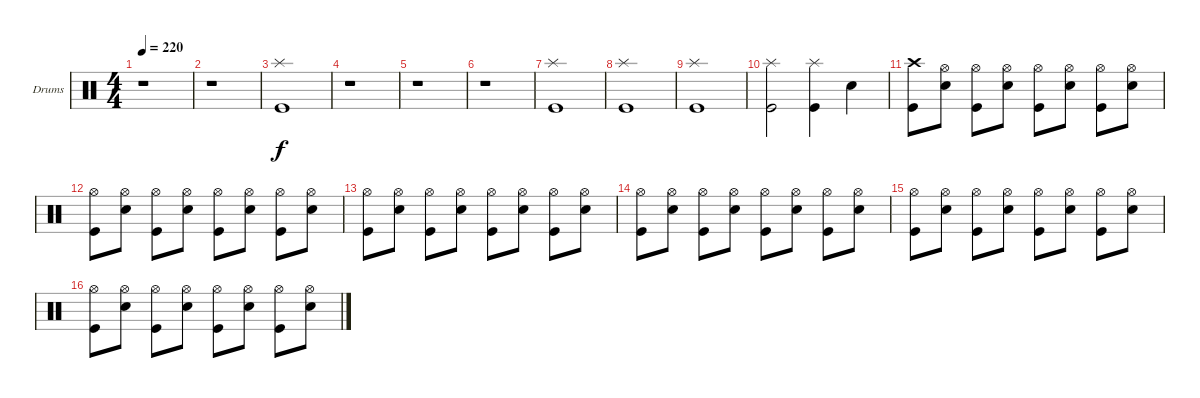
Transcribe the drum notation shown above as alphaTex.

\bracketExtendMode groupsimilarinstruments
\firstSystemTrackNameOrientation horizontal
\otherSystemsTrackNameOrientation horizontal
\track ("Dave Lombardo" "Drums") {instrument percussion}
\staff {score}
\articulation defaults
\ts (4 4)
\tempo 220
\clef neutral
\ks c
r.1{dy f} |
r.1 |
("Kick (hit)" "Splash (hit)").1 |
r.1 |
r.1 |
r.1 |
("Kick (hit)" "Splash (hit)").1 |
("Kick (hit)" "Splash (hit)").1 |
("Kick (hit)" "Splash (hit)").1 |
("Kick (hit)" "Splash (hit)").2 ("Kick (hit)" "Splash (hit)").4 "Snare (hit) 2".4 |
("Kick (hit)" "Crash high (hit)").8 ("Snare (hit) 2" "Hi-Hat (open)").8 ("Kick (hit)" "Hi-Hat (open)").8 ("Snare (hit) 2" "Hi-Hat (open)").8 ("Kick (hit)" "Hi-Hat (open)").8 ("Snare (hit) 2" "Hi-Hat (open)").8 ("Kick (hit)" "Hi-Hat (open)").8 ("Snare (hit) 2" "Hi-Hat (open)").8 |
("Kick (hit)" "Hi-Hat (open)").8 ("Snare (hit) 2" "Hi-Hat (open)").8 ("Kick (hit)" "Hi-Hat (open)").8 ("Snare (hit) 2" "Hi-Hat (open)").8 ("Kick (hit)" "Hi-Hat (open)").8 ("Snare (hit) 2" "Hi-Hat (open)").8 ("Kick (hit)" "Hi-Hat (open)").8 ("Snare (hit) 2" "Hi-Hat (open)").8 |
("Kick (hit)" "Hi-Hat (open)").8 ("Snare (hit) 2" "Hi-Hat (open)").8 ("Kick (hit)" "Hi-Hat (open)").8 ("Snare (hit) 2" "Hi-Hat (open)").8 ("Kick (hit)" "Hi-Hat (open)").8 ("Snare (hit) 2" "Hi-Hat (open)").8 ("Kick (hit)" "Hi-Hat (open)").8 ("Snare (hit) 2" "Hi-Hat (open)").8 |
("Kick (hit)" "Hi-Hat (open)").8 ("Snare (hit) 2" "Hi-Hat (open)").8 ("Kick (hit)" "Hi-Hat (open)").8 ("Snare (hit) 2" "Hi-Hat (open)").8 ("Kick (hit)" "Hi-Hat (open)").8 ("Snare (hit) 2" "Hi-Hat (open)").8 ("Kick (hit)" "Hi-Hat (open)").8 ("Snare (hit) 2" "Hi-Hat (open)").8 |
("Kick (hit)" "Hi-Hat (open)").8 ("Snare (hit) 2" "Hi-Hat (open)").8 ("Kick (hit)" "Hi-Hat (open)").8 ("Snare (hit) 2" "Hi-Hat (open)").8 ("Kick (hit)" "Hi-Hat (open)").8 ("Snare (hit) 2" "Hi-Hat (open)").8 ("Kick (hit)" "Hi-Hat (open)").8 ("Snare (hit) 2" "Hi-Hat (open)").8 |
("Kick (hit)" "Hi-Hat (open)").8 ("Snare (hit) 2" "Hi-Hat (open)").8 ("Kick (hit)" "Hi-Hat (open)").8 ("Snare (hit) 2" "Hi-Hat (open)").8 ("Kick (hit)" "Hi-Hat (open)").8 ("Snare (hit) 2" "Hi-Hat (open)").8 ("Kick (hit)" "Hi-Hat (open)").8 ("Snare (hit) 2" "Hi-Hat (open)").8
